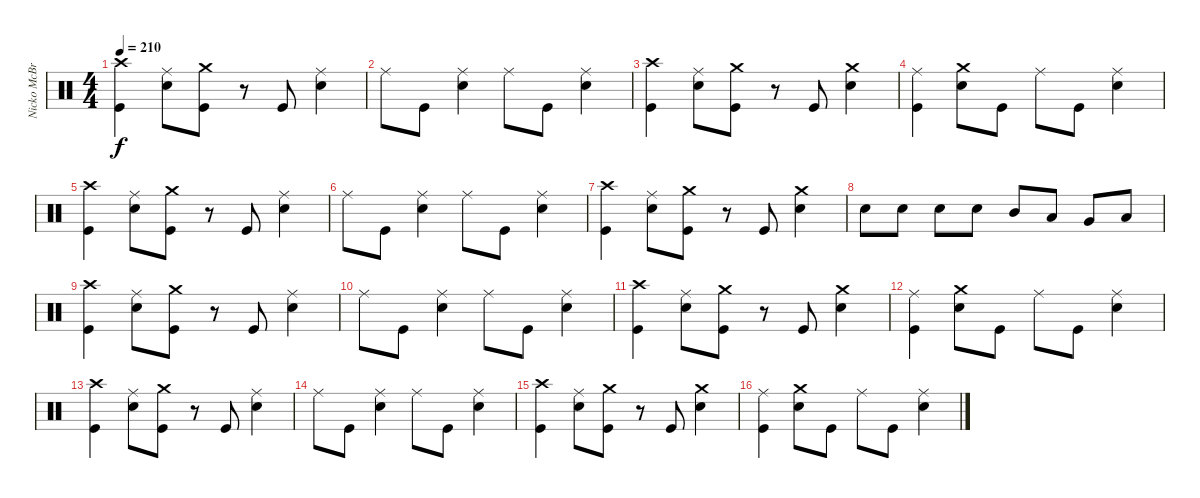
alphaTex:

\track ("Nicko McBrain" "Nicko McBr") {instrument percussion}
\staff {score}
\articulation defaults
\ts (4 4)
\tempo 210
\clef neutral
\ks c
("Crash high (hit)" "Kick (hit)").4{dy f} ("Ride (middle)" "Snare (hit) 2").8 ("Crash medium (hit)" "Kick (hit)").8 r.8 "Kick (hit)".8 ("Ride (middle)" "Snare (hit) 2").4 |
"Ride (middle)".8 "Kick (hit)".8 ("Ride (middle)" "Snare (hit) 2").4 "Ride (middle)".8 "Kick (hit)".8 ("Ride (middle)" "Snare (hit) 2").4 |
("Crash high (hit)" "Kick (hit)").4 ("Ride (middle)" "Snare (hit) 2").8 ("Crash medium (hit)" "Kick (hit)").8 r.8 "Kick (hit)".8 ("Crash medium (hit)" "Snare (hit) 2").4 |
("Ride (middle)" "Kick (hit)").4 ("Crash medium (hit)" "Snare (hit) 2").8 "Kick (hit)".8 "Ride (middle)".8 "Kick (hit)".8 ("Ride (middle)" "Snare (hit) 2").4 |
("Crash high (hit)" "Kick (hit)").4 ("Ride (middle)" "Snare (hit) 2").8 ("Crash medium (hit)" "Kick (hit)").8 r.8 "Kick (hit)".8 ("Ride (middle)" "Snare (hit) 2").4 |
"Ride (middle)".8 "Kick (hit)".8 ("Ride (middle)" "Snare (hit) 2").4 "Ride (middle)".8 "Kick (hit)".8 ("Ride (middle)" "Snare (hit) 2").4 |
("Crash high (hit)" "Kick (hit)").4 ("Ride (middle)" "Snare (hit) 2").8 ("Crash medium (hit)" "Kick (hit)").8 r.8 "Kick (hit)".8 ("Crash medium (hit)" "Snare (hit) 2").4 |
"Snare (hit) 2".8 "Snare (hit) 2".8 "Snare (hit) 2".8 "Snare (hit) 2".8 "Mid Tom (hit)".8 "Low Tom (hit)".8 "Very Low Tom (hit)".8 "Low Floor Tom (hit)".8 |
("Crash high (hit)" "Kick (hit)").4 ("Ride (middle)" "Snare (hit) 2").8 ("Crash medium (hit)" "Kick (hit)").8 r.8 "Kick (hit)".8 ("Ride (middle)" "Snare (hit) 2").4 |
"Ride (middle)".8 "Kick (hit)".8 ("Ride (middle)" "Snare (hit) 2").4 "Ride (middle)".8 "Kick (hit)".8 ("Ride (middle)" "Snare (hit) 2").4 |
("Crash high (hit)" "Kick (hit)").4 ("Ride (middle)" "Snare (hit) 2").8 ("Crash medium (hit)" "Kick (hit)").8 r.8 "Kick (hit)".8 ("Crash medium (hit)" "Snare (hit) 2").4 |
("Ride (middle)" "Kick (hit)").4 ("Crash medium (hit)" "Snare (hit) 2").8 "Kick (hit)".8 "Ride (middle)".8 "Kick (hit)".8 ("Ride (middle)" "Snare (hit) 2").4 |
("Crash high (hit)" "Kick (hit)").4 ("Ride (middle)" "Snare (hit) 2").8 ("Crash medium (hit)" "Kick (hit)").8 r.8 "Kick (hit)".8 ("Ride (middle)" "Snare (hit) 2").4 |
"Ride (middle)".8 "Kick (hit)".8 ("Ride (middle)" "Snare (hit) 2").4 "Ride (middle)".8 "Kick (hit)".8 ("Ride (middle)" "Snare (hit) 2").4 |
("Crash high (hit)" "Kick (hit)").4 ("Ride (middle)" "Snare (hit) 2").8 ("Crash medium (hit)" "Kick (hit)").8 r.8 "Kick (hit)".8 ("Crash medium (hit)" "Snare (hit) 2").4 |
("Ride (middle)" "Kick (hit)").4 ("Crash medium (hit)" "Snare (hit) 2").8 "Kick (hit)".8 "Ride (middle)".8 "Kick (hit)".8 ("Ride (middle)" "Snare (hit) 2").4
